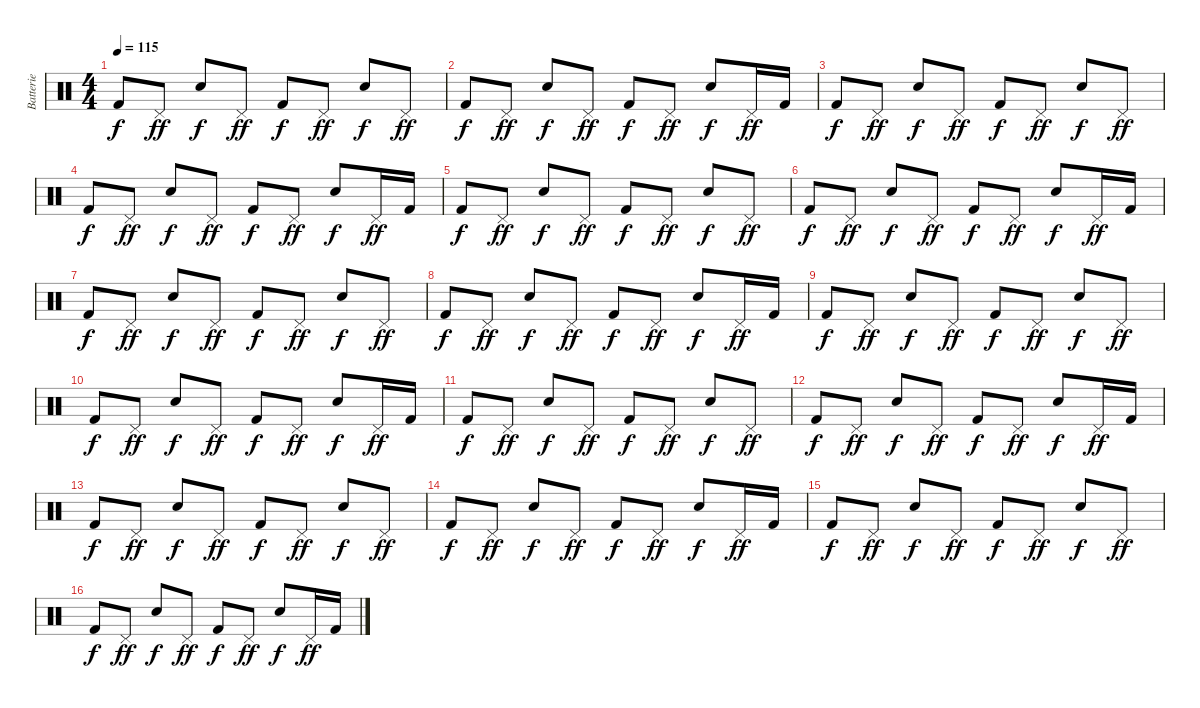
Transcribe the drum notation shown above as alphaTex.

\track ("Batterie" "Batterie") {instrument percussion}
\staff {score}
\articulation defaults
\ts (4 4)
\tempo 115
\clef neutral
\ks c "Kick (hit) 2".8{dy f} "Pedal Hi-Hat (hit)".8{dy ff} "Electric Snare (hit)".8{dy f} "Pedal Hi-Hat (hit)".8{dy ff} "Kick (hit) 2".8{dy f} "Pedal Hi-Hat (hit)".8{dy ff} "Electric Snare (hit)".8{dy f} "Pedal Hi-Hat (hit)".8{dy ff}
|
"Kick (hit) 2".8{dy f} "Pedal Hi-Hat (hit)".8{dy ff} "Electric Snare (hit)".8{dy f} "Pedal Hi-Hat (hit)".8{dy ff} "Kick (hit) 2".8{dy f} "Pedal Hi-Hat (hit)".8{dy ff} "Electric Snare (hit)".8{dy f} "Pedal Hi-Hat (hit)".16{dy ff} "Kick (hit) 2".16 |
"Kick (hit) 2".8{dy f} "Pedal Hi-Hat (hit)".8{dy ff} "Electric Snare (hit)".8{dy f} "Pedal Hi-Hat (hit)".8{dy ff} "Kick (hit) 2".8{dy f} "Pedal Hi-Hat (hit)".8{dy ff} "Electric Snare (hit)".8{dy f} "Pedal Hi-Hat (hit)".8{dy ff} |
"Kick (hit) 2".8{dy f} "Pedal Hi-Hat (hit)".8{dy ff} "Electric Snare (hit)".8{dy f} "Pedal Hi-Hat (hit)".8{dy ff} "Kick (hit) 2".8{dy f} "Pedal Hi-Hat (hit)".8{dy ff} "Electric Snare (hit)".8{dy f} "Pedal Hi-Hat (hit)".16{dy ff} "Kick (hit) 2".16 |
"Kick (hit) 2".8{dy f} "Pedal Hi-Hat (hit)".8{dy ff} "Electric Snare (hit)".8{dy f} "Pedal Hi-Hat (hit)".8{dy ff} "Kick (hit) 2".8{dy f} "Pedal Hi-Hat (hit)".8{dy ff} "Electric Snare (hit)".8{dy f} "Pedal Hi-Hat (hit)".8{dy ff} |
"Kick (hit) 2".8{dy f} "Pedal Hi-Hat (hit)".8{dy ff} "Electric Snare (hit)".8{dy f} "Pedal Hi-Hat (hit)".8{dy ff} "Kick (hit) 2".8{dy f} "Pedal Hi-Hat (hit)".8{dy ff} "Electric Snare (hit)".8{dy f} "Pedal Hi-Hat (hit)".16{dy ff} "Kick (hit) 2".16 |
"Kick (hit) 2".8{dy f} "Pedal Hi-Hat (hit)".8{dy ff} "Electric Snare (hit)".8{dy f} "Pedal Hi-Hat (hit)".8{dy ff} "Kick (hit) 2".8{dy f} "Pedal Hi-Hat (hit)".8{dy ff} "Electric Snare (hit)".8{dy f} "Pedal Hi-Hat (hit)".8{dy ff} |
"Kick (hit) 2".8{dy f} "Pedal Hi-Hat (hit)".8{dy ff} "Electric Snare (hit)".8{dy f} "Pedal Hi-Hat (hit)".8{dy ff} "Kick (hit) 2".8{dy f} "Pedal Hi-Hat (hit)".8{dy ff} "Electric Snare (hit)".8{dy f} "Pedal Hi-Hat (hit)".16{dy ff} "Kick (hit) 2".16 |
"Kick (hit) 2".8{dy f} "Pedal Hi-Hat (hit)".8{dy ff} "Electric Snare (hit)".8{dy f} "Pedal Hi-Hat (hit)".8{dy ff} "Kick (hit) 2".8{dy f} "Pedal Hi-Hat (hit)".8{dy ff} "Electric Snare (hit)".8{dy f} "Pedal Hi-Hat (hit)".8{dy ff} |
"Kick (hit) 2".8{dy f} "Pedal Hi-Hat (hit)".8{dy ff} "Electric Snare (hit)".8{dy f} "Pedal Hi-Hat (hit)".8{dy ff} "Kick (hit) 2".8{dy f} "Pedal Hi-Hat (hit)".8{dy ff} "Electric Snare (hit)".8{dy f} "Pedal Hi-Hat (hit)".16{dy ff} "Kick (hit) 2".16 |
"Kick (hit) 2".8{dy f} "Pedal Hi-Hat (hit)".8{dy ff} "Electric Snare (hit)".8{dy f} "Pedal Hi-Hat (hit)".8{dy ff} "Kick (hit) 2".8{dy f} "Pedal Hi-Hat (hit)".8{dy ff} "Electric Snare (hit)".8{dy f} "Pedal Hi-Hat (hit)".8{dy ff} |
"Kick (hit) 2".8{dy f} "Pedal Hi-Hat (hit)".8{dy ff} "Electric Snare (hit)".8{dy f} "Pedal Hi-Hat (hit)".8{dy ff} "Kick (hit) 2".8{dy f} "Pedal Hi-Hat (hit)".8{dy ff} "Electric Snare (hit)".8{dy f} "Pedal Hi-Hat (hit)".16{dy ff} "Kick (hit) 2".16 |
"Kick (hit) 2".8{dy f} "Pedal Hi-Hat (hit)".8{dy ff} "Electric Snare (hit)".8{dy f} "Pedal Hi-Hat (hit)".8{dy ff} "Kick (hit) 2".8{dy f} "Pedal Hi-Hat (hit)".8{dy ff} "Electric Snare (hit)".8{dy f} "Pedal Hi-Hat (hit)".8{dy ff} |
"Kick (hit) 2".8{dy f} "Pedal Hi-Hat (hit)".8{dy ff} "Electric Snare (hit)".8{dy f} "Pedal Hi-Hat (hit)".8{dy ff} "Kick (hit) 2".8{dy f} "Pedal Hi-Hat (hit)".8{dy ff} "Electric Snare (hit)".8{dy f} "Pedal Hi-Hat (hit)".16{dy ff} "Kick (hit) 2".16 |
"Kick (hit) 2".8{dy f} "Pedal Hi-Hat (hit)".8{dy ff} "Electric Snare (hit)".8{dy f} "Pedal Hi-Hat (hit)".8{dy ff} "Kick (hit) 2".8{dy f} "Pedal Hi-Hat (hit)".8{dy ff} "Electric Snare (hit)".8{dy f} "Pedal Hi-Hat (hit)".8{dy ff} |
"Kick (hit) 2".8{dy f} "Pedal Hi-Hat (hit)".8{dy ff} "Electric Snare (hit)".8{dy f} "Pedal Hi-Hat (hit)".8{dy ff} "Kick (hit) 2".8{dy f} "Pedal Hi-Hat (hit)".8{dy ff} "Electric Snare (hit)".8{dy f} "Pedal Hi-Hat (hit)".16{dy ff} "Kick (hit) 2".16
